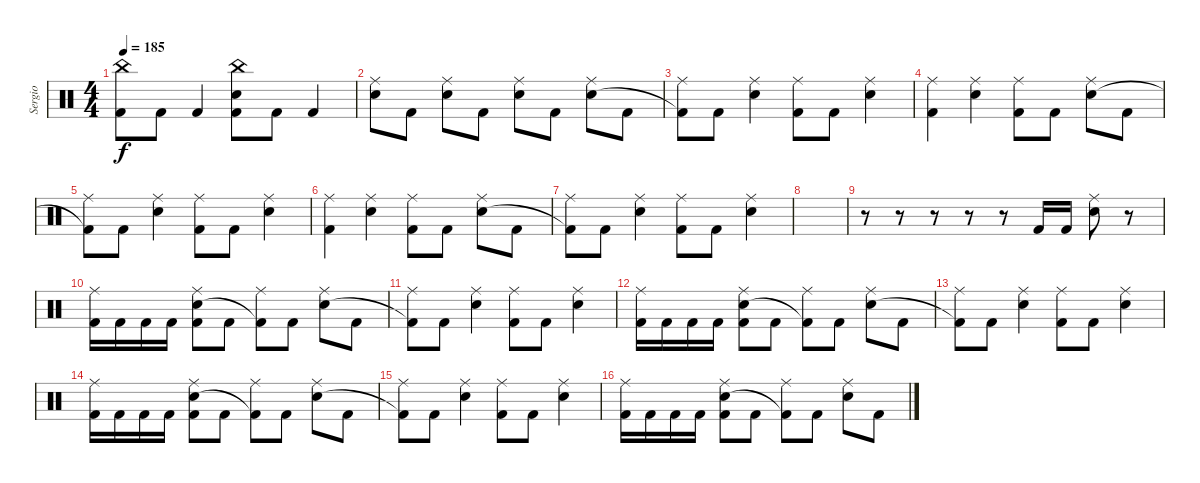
\track ("Sergio" "Sergio") {instrument percussion}
\staff {score}
\articulation defaults
\ts (4 4)
\tempo 185
\clef neutral
\ks c
("China (hit)" "Kick (hit) 2"{t}).8{dy f} "Kick (hit) 2".8 "Kick (hit) 2".4 ("China (hit)" "Electric Snare (hit)" "Kick (hit) 2").8 "Kick (hit) 2".8 "Kick (hit) 2".4 |
("Ride (middle)" "Electric Snare (hit)").8 "Kick (hit) 2".8 ("Ride (middle)" "Electric Snare (hit)").8 "Kick (hit) 2".8 ("Ride (middle)" "Electric Snare (hit)").8 "Kick (hit) 2".8 ("Ride (middle)" "Electric Snare (hit)").8 "Kick (hit) 2".8 |
("Ride (middle)" "Kick (hit) 2"{t}).8 "Kick (hit) 2".8 ("Ride (middle)" "Electric Snare (hit)").4 ("Ride (middle)" "Kick (hit) 2").8 "Kick (hit) 2".8 ("Ride (middle)" "Electric Snare (hit)").4 |
("Ride (middle)" "Kick (hit) 2").4 ("Ride (middle)" "Electric Snare (hit)").4 ("Ride (middle)" "Kick (hit) 2").8 "Kick (hit) 2".8 ("Ride (middle)" "Electric Snare (hit)").8 "Kick (hit) 2".8 |
("Ride (middle)" "Kick (hit) 2"{t}).8 "Kick (hit) 2".8 ("Ride (middle)" "Electric Snare (hit)").4 ("Ride (middle)" "Kick (hit) 2").8 "Kick (hit) 2".8 ("Ride (middle)" "Electric Snare (hit)").4 |
("Ride (middle)" "Kick (hit) 2").4 ("Ride (middle)" "Electric Snare (hit)").4 ("Ride (middle)" "Kick (hit) 2").8 "Kick (hit) 2".8 ("Ride (middle)" "Electric Snare (hit)").8 "Kick (hit) 2".8 |
("Ride (middle)" "Kick (hit) 2"{t}).8 "Kick (hit) 2".8 ("Ride (middle)" "Electric Snare (hit)").4 ("Ride (middle)" "Kick (hit) 2").8 "Kick (hit) 2".8 ("Ride (middle)" "Electric Snare (hit)").4 |
|
r.8 r.8 r.8 r.8 r.8 "Kick (hit) 2".16 "Kick (hit) 2".16 ("Ride (middle)" "Electric Snare (hit)").8 r.8 |
("Ride (middle)" "Kick (hit) 2").16 "Kick (hit) 2".16 "Kick (hit) 2".16 "Kick (hit) 2".16 ("Ride (middle)" "Electric Snare (hit)" "Kick (hit) 2").8 "Kick (hit) 2".8 ("Ride (middle)" "Kick (hit) 2"{t}).8 "Kick (hit) 2".8 ("Ride (middle)" "Electric Snare (hit)").8 "Kick (hit) 2".8 |
("Ride (middle)" "Kick (hit) 2"{t}).8 "Kick (hit) 2".8 ("Ride (middle)" "Electric Snare (hit)").4 ("Ride (middle)" "Kick (hit) 2").8 "Kick (hit) 2".8 ("Ride (middle)" "Electric Snare (hit)").4 |
("Ride (middle)" "Kick (hit) 2").16 "Kick (hit) 2".16 "Kick (hit) 2".16 "Kick (hit) 2".16 ("Ride (middle)" "Electric Snare (hit)" "Kick (hit) 2").8 "Kick (hit) 2".8 ("Ride (middle)" "Kick (hit) 2"{t}).8 "Kick (hit) 2".8 ("Ride (middle)" "Electric Snare (hit)").8 "Kick (hit) 2".8 |
("Ride (middle)" "Kick (hit) 2"{t}).8 "Kick (hit) 2".8 ("Ride (middle)" "Electric Snare (hit)").4 ("Ride (middle)" "Kick (hit) 2").8 "Kick (hit) 2".8 ("Ride (middle)" "Electric Snare (hit)").4 |
("Ride (middle)" "Kick (hit) 2").16 "Kick (hit) 2".16 "Kick (hit) 2".16 "Kick (hit) 2".16 ("Ride (middle)" "Electric Snare (hit)" "Kick (hit) 2").8 "Kick (hit) 2".8 ("Ride (middle)" "Kick (hit) 2"{t}).8 "Kick (hit) 2".8 ("Ride (middle)" "Electric Snare (hit)").8 "Kick (hit) 2".8 |
("Ride (middle)" "Kick (hit) 2"{t}).8 "Kick (hit) 2".8 ("Ride (middle)" "Electric Snare (hit)").4 ("Ride (middle)" "Kick (hit) 2").8 "Kick (hit) 2".8 ("Ride (middle)" "Electric Snare (hit)").4 |
("Ride (middle)" "Kick (hit) 2").16 "Kick (hit) 2".16 "Kick (hit) 2".16 "Kick (hit) 2".16 ("Ride (middle)" "Electric Snare (hit)" "Kick (hit) 2").8 "Kick (hit) 2".8 ("Ride (middle)" "Kick (hit) 2"{t}).8 "Kick (hit) 2".8 ("Ride (middle)" "Electric Snare (hit)").8 "Kick (hit) 2".8
